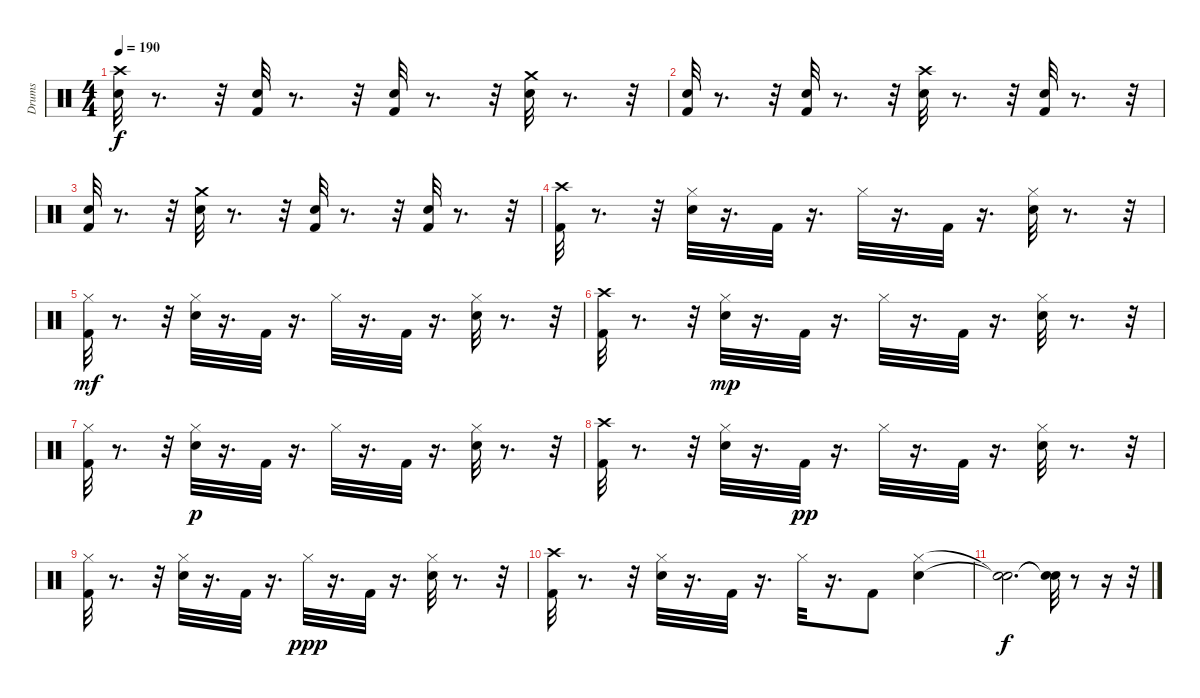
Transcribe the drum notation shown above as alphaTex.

\track ("Drums" "Drums") {instrument percussion}
\staff {score}
\articulation defaults
\ts (4 4)
\tempo 190
\clef neutral
\ks c
("Crash high (hit)" "Snare (hit) 2").32{dy f} r.8{d} r.32 ("Hand Clap (hit)" "Kick (hit) 2").32 r.8{d} r.32 ("Kick (hit) 2" "Hand Clap (hit)").32 r.8{d} r.32 ("Crash medium (hit)" "Snare (hit) 2").32 r.8{d} r.32 |
("Kick (hit) 2" "Hand Clap (hit)").32 r.8{d} r.32 ("Kick (hit) 2" "Hand Clap (hit)").32 r.8{d} r.32 ("Snare (hit) 2" "Crash high (hit)").32 r.8{d} r.32 ("Kick (hit) 2" "Hand Clap (hit)").32 r.8{d} r.32 |
("Kick (hit) 2" "Hand Clap (hit)").32 r.8{d} r.32 ("Crash medium (hit)" "Snare (hit) 2").32 r.8{d} r.32 ("Kick (hit) 2" "Hand Clap (hit)").32 r.8{d} r.32 ("Kick (hit) 2" "Hand Clap (hit)").32 r.8{d} r.32 |
("Crash high (hit)" "Kick (hit) 2").32 r.8{d} r.32 ("Hi-Hat (closed)" "Snare (hit) 2").32 r.16{d} "Kick (hit) 2".32 r.16{d} "Hi-Hat (closed)".32 r.16{d} "Kick (hit) 2".32 r.16{d} ("Hi-Hat (closed)" "Snare (hit) 2").32 r.8{d} r.32 |
("Hi-Hat (closed)" "Kick (hit) 2").32{dy mf} r.8{d} r.32 ("Snare (hit) 2" "Hi-Hat (closed)").32 r.16{d} "Kick (hit) 2".32 r.16{d} "Hi-Hat (closed)".32 r.16{d} "Kick (hit) 2".32 r.16{d} ("Snare (hit) 2" "Hi-Hat (closed)").32 r.8{d} r.32 |
("Crash high (hit)" "Kick (hit) 2").32 r.8{d} r.32 ("Hi-Hat (closed)" "Snare (hit) 2").32{dy mp} r.16{d} "Kick (hit) 2".32 r.16{d} "Hi-Hat (closed)".32 r.16{d} "Kick (hit) 2".32 r.16{d} ("Hi-Hat (closed)" "Snare (hit) 2").32 r.8{d} r.32 |
("Hi-Hat (closed)" "Kick (hit) 2").32 r.8{d} r.32 ("Snare (hit) 2" "Hi-Hat (closed)").32{dy p} r.16{d} "Kick (hit) 2".32 r.16{d} "Hi-Hat (closed)".32 r.16{d} "Kick (hit) 2".32 r.16{d} ("Snare (hit) 2" "Hi-Hat (closed)").32 r.8{d} r.32 |
("Crash high (hit)" "Kick (hit) 2").32 r.8{d} r.32 ("Hi-Hat (closed)" "Snare (hit) 2").32 r.16{d} "Kick (hit) 2".32{dy pp} r.16{d} "Hi-Hat (closed)".32 r.16{d} "Kick (hit) 2".32 r.16{d} ("Hi-Hat (closed)" "Snare (hit) 2").32 r.8{d} r.32 |
("Hi-Hat (closed)" "Kick (hit) 2").32 r.8{d} r.32 ("Snare (hit) 2" "Hi-Hat (closed)").32 r.16{d} "Kick (hit) 2".32 r.16{d} "Hi-Hat (closed)".32{dy ppp} r.16{d} "Kick (hit) 2".32 r.16{d} ("Snare (hit) 2" "Hi-Hat (closed)").32 r.8{d} r.32 |
("Crash high (hit)" "Kick (hit) 2").32 r.8{d} r.32 ("Hi-Hat (closed)" "Snare (hit) 2").32 r.16{d} "Kick (hit) 2".32 r.16{d} "Hi-Hat (closed)".32 r.16{d} "Kick (hit) 2".8 ("Hi-Hat (closed)" "Snare (hit) 2").4 |
("Snare (hit)"{t} "Snare (hit)"{t}).2{d dy f} ("Snare (hit)"{t} "Snare (hit)"{t}).32 r.8 r.16 r.32
